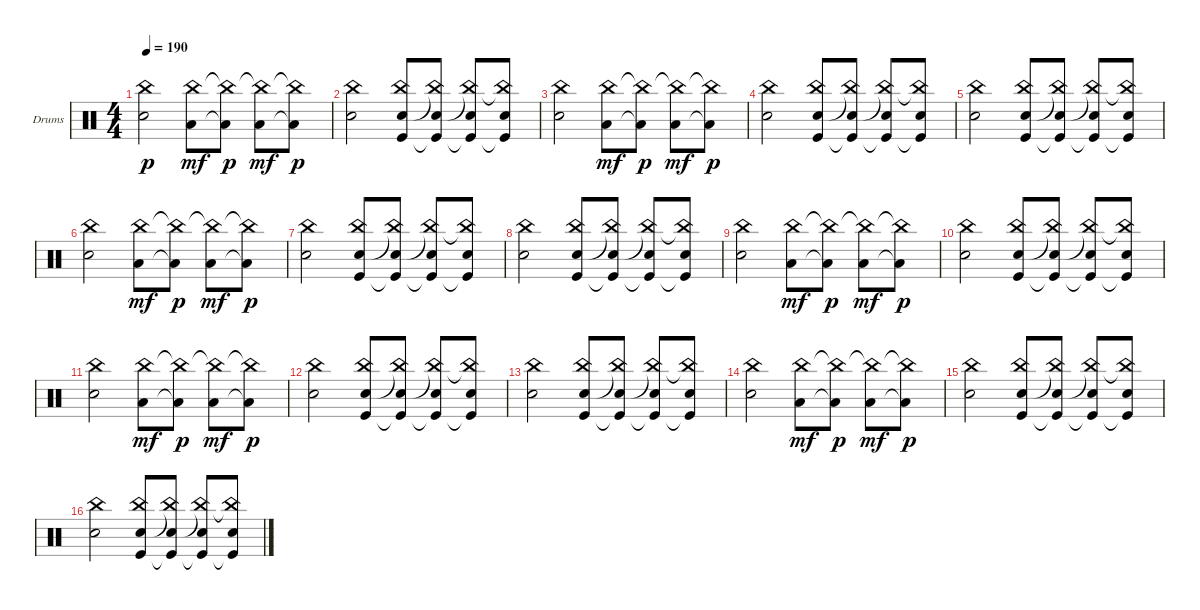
\defaultSystemsLayout 4
\bracketExtendMode groupsimilarinstruments
\firstSystemTrackNameOrientation horizontal
\otherSystemsTrackNameOrientation horizontal
\track ("Drumkit" "Drums") {instrument percussion}
\staff {score}
\articulation defaults
\ts (4 4)
\tempo 190
\clef neutral
\ks c
("Snare (hit) 2" "China (hit)").2{dy p} ("China (hit)" "Low Tom (hit)").8{dy mf} ("China (hit)"{t} "Low Tom (hit)"{t}).8{dy p} ("China (hit)"{t} "Low Tom (hit)").8{dy mf} ("China (hit)"{t} "Low Tom (hit)"{t}).8{dy p} |
("Snare (hit) 2" "China (hit)").2 ("Snare (hit) 2" "China (hit)" "Kick (hit)").8 ("China (hit)"{t} "Snare (hit) 2" "Kick (hit)"{t}).8 ("Snare (hit) 2" "China (hit)"{t} "Kick (hit)"{t}).8 ("Snare (hit) 2" "China (hit)"{t} "Kick (hit)"{t}).8 |
("Snare (hit) 2" "China (hit)").2 ("China (hit)" "Low Tom (hit)").8{dy mf} ("China (hit)"{t} "Low Tom (hit)"{t}).8{dy p} ("China (hit)"{t} "Low Tom (hit)").8{dy mf} ("China (hit)"{t} "Low Tom (hit)"{t}).8{dy p} |
("Snare (hit) 2" "China (hit)").2 ("Snare (hit) 2" "China (hit)" "Kick (hit)").8 ("China (hit)"{t} "Snare (hit) 2" "Kick (hit)"{t}).8 ("Snare (hit) 2" "China (hit)"{t} "Kick (hit)"{t}).8 ("Snare (hit) 2" "China (hit)"{t} "Kick (hit)"{t}).8 |
("Snare (hit) 2" "China (hit)").2 ("Snare (hit) 2" "China (hit)" "Kick (hit)").8 ("China (hit)"{t} "Snare (hit) 2" "Kick (hit)"{t}).8 ("Snare (hit) 2" "China (hit)"{t} "Kick (hit)"{t}).8 ("Snare (hit) 2" "China (hit)"{t} "Kick (hit)"{t}).8 |
("Snare (hit) 2" "China (hit)").2 ("China (hit)" "Low Tom (hit)").8{dy mf} ("China (hit)"{t} "Low Tom (hit)"{t}).8{dy p} ("China (hit)"{t} "Low Tom (hit)").8{dy mf} ("China (hit)"{t} "Low Tom (hit)"{t}).8{dy p} |
("Snare (hit) 2" "China (hit)").2 ("Snare (hit) 2" "China (hit)" "Kick (hit)").8 ("China (hit)"{t} "Snare (hit) 2" "Kick (hit)"{t}).8 ("Snare (hit) 2" "China (hit)"{t} "Kick (hit)"{t}).8 ("Snare (hit) 2" "China (hit)"{t} "Kick (hit)"{t}).8 |
("Snare (hit) 2" "China (hit)").2 ("Snare (hit) 2" "China (hit)" "Kick (hit)").8 ("China (hit)"{t} "Snare (hit) 2" "Kick (hit)"{t}).8 ("Snare (hit) 2" "China (hit)"{t} "Kick (hit)"{t}).8 ("Snare (hit) 2" "China (hit)"{t} "Kick (hit)"{t}).8 |
("Snare (hit) 2" "China (hit)").2 ("China (hit)" "Low Tom (hit)").8{dy mf} ("China (hit)"{t} "Low Tom (hit)"{t}).8{dy p} ("China (hit)"{t} "Low Tom (hit)").8{dy mf} ("China (hit)"{t} "Low Tom (hit)"{t}).8{dy p} |
("Snare (hit) 2" "China (hit)").2 ("Snare (hit) 2" "China (hit)" "Kick (hit)").8 ("China (hit)"{t} "Snare (hit) 2" "Kick (hit)"{t}).8 ("Snare (hit) 2" "China (hit)"{t} "Kick (hit)"{t}).8 ("Snare (hit) 2" "China (hit)"{t} "Kick (hit)"{t}).8 |
("Snare (hit) 2" "China (hit)").2 ("China (hit)" "Low Tom (hit)").8{dy mf} ("China (hit)"{t} "Low Tom (hit)"{t}).8{dy p} ("China (hit)"{t} "Low Tom (hit)").8{dy mf} ("China (hit)"{t} "Low Tom (hit)"{t}).8{dy p} |
("Snare (hit) 2" "China (hit)").2 ("Snare (hit) 2" "China (hit)" "Kick (hit)").8 ("China (hit)"{t} "Snare (hit) 2" "Kick (hit)"{t}).8 ("Snare (hit) 2" "China (hit)"{t} "Kick (hit)"{t}).8 ("Snare (hit) 2" "China (hit)"{t} "Kick (hit)"{t}).8 |
("Snare (hit) 2" "China (hit)").2 ("Snare (hit) 2" "China (hit)" "Kick (hit)").8 ("China (hit)"{t} "Snare (hit) 2" "Kick (hit)"{t}).8 ("Snare (hit) 2" "China (hit)"{t} "Kick (hit)"{t}).8 ("Snare (hit) 2" "China (hit)"{t} "Kick (hit)"{t}).8 |
("Snare (hit) 2" "China (hit)").2 ("China (hit)" "Low Tom (hit)").8{dy mf} ("China (hit)"{t} "Low Tom (hit)"{t}).8{dy p} ("China (hit)"{t} "Low Tom (hit)").8{dy mf} ("China (hit)"{t} "Low Tom (hit)"{t}).8{dy p} |
("Snare (hit) 2" "China (hit)").2 ("Snare (hit) 2" "China (hit)" "Kick (hit)").8 ("China (hit)"{t} "Snare (hit) 2" "Kick (hit)"{t}).8 ("Snare (hit) 2" "China (hit)"{t} "Kick (hit)"{t}).8 ("Snare (hit) 2" "China (hit)"{t} "Kick (hit)"{t}).8 |
("Snare (hit) 2" "China (hit)").2 ("Snare (hit) 2" "China (hit)" "Kick (hit)").8 ("China (hit)"{t} "Snare (hit) 2" "Kick (hit)"{t}).8 ("Snare (hit) 2" "China (hit)"{t} "Kick (hit)"{t}).8 ("Snare (hit) 2" "China (hit)"{t} "Kick (hit)"{t}).8
